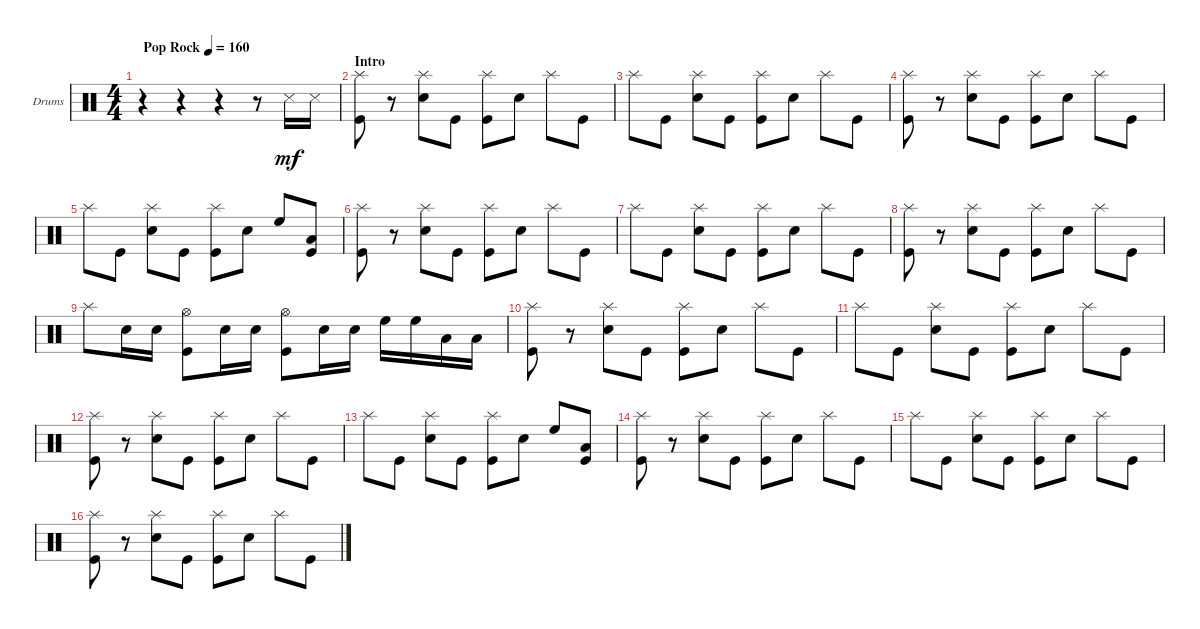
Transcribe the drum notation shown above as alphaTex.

\bracketExtendMode groupsimilarinstruments
\firstSystemTrackNameOrientation horizontal
\otherSystemsTrackNameOrientation horizontal
\track ("Drumkit" "Drums") {instrument percussion}
\staff {score}
\articulation defaults
\ts (4 4)
\beaming (8 2 2 2 2)
\tempo (160 "Pop Rock")
\clef neutral
\ks c
r.4{dy mf} r.4 r.4 r.8 "Snare (side stick) 3".16 "Snare (side stick) 3".16 |
\section ("" "Intro")
("Kick (hit)" "Splash (hit)").8 r.8 ("Snare (hit) 2" "Splash (hit)").8 "Kick (hit)".8 ("Kick (hit)" "Splash (hit)").8 "Snare (hit) 2".8 "Splash (hit)".8 "Kick (hit)".8 |
"Splash (hit)".8 "Kick (hit)".8 ("Snare (hit) 2" "Splash (hit)").8 "Kick (hit)".8 ("Kick (hit)" "Splash (hit)").8 "Snare (hit) 2".8 "Splash (hit)".8 "Kick (hit)".8 |
("Kick (hit)" "Splash (hit)").8 r.8 ("Snare (hit) 2" "Splash (hit)").8 "Kick (hit)".8 ("Kick (hit)" "Splash (hit)").8 "Snare (hit) 2".8 "Splash (hit)".8 "Kick (hit)".8 |
"Splash (hit)".8 "Kick (hit)".8 ("Snare (hit) 2" "Splash (hit)").8 "Kick (hit)".8 ("Kick (hit)" "Splash (hit)").8 "Snare (hit) 2".8 "High Floor Tom (hit)".8 ("Kick (hit)" "Low Tom (hit)").8 |
("Kick (hit)" "Splash (hit)").8 r.8 ("Snare (hit) 2" "Splash (hit)").8 "Kick (hit)".8 ("Kick (hit)" "Splash (hit)").8 "Snare (hit) 2".8 "Splash (hit)".8 "Kick (hit)".8 |
"Splash (hit)".8 "Kick (hit)".8 ("Snare (hit) 2" "Splash (hit)").8 "Kick (hit)".8 ("Kick (hit)" "Splash (hit)").8 "Snare (hit) 2".8 "Splash (hit)".8 "Kick (hit)".8 |
("Kick (hit)" "Splash (hit)").8 r.8 ("Snare (hit) 2" "Splash (hit)").8 "Kick (hit)".8 ("Kick (hit)" "Splash (hit)").8 "Snare (hit) 2".8 "Splash (hit)".8 "Kick (hit)".8 |
"Splash (hit)".8 "Snare (hit) 2".16 "Snare (hit) 2".16 ("Kick (hit)" "Hi-Hat (open)").8 "Snare (hit) 2".16 "Snare (hit) 2".16 ("Hi-Hat (open)" "Kick (hit)").8 "Snare (hit) 2".16 "Snare (hit) 2".16 "High Floor Tom (hit)".16 "High Floor Tom (hit)".16 "Low Tom (hit)".16 "Low Tom (hit)".16 |
("Kick (hit)" "Splash (hit)").8 r.8 ("Snare (hit) 2" "Splash (hit)").8 "Kick (hit)".8 ("Kick (hit)" "Splash (hit)").8 "Snare (hit) 2".8 "Splash (hit)".8 "Kick (hit)".8 |
"Splash (hit)".8 "Kick (hit)".8 ("Snare (hit) 2" "Splash (hit)").8 "Kick (hit)".8 ("Kick (hit)" "Splash (hit)").8 "Snare (hit) 2".8 "Splash (hit)".8 "Kick (hit)".8 |
("Kick (hit)" "Splash (hit)").8 r.8 ("Snare (hit) 2" "Splash (hit)").8 "Kick (hit)".8 ("Kick (hit)" "Splash (hit)").8 "Snare (hit) 2".8 "Splash (hit)".8 "Kick (hit)".8 |
"Splash (hit)".8 "Kick (hit)".8 ("Snare (hit) 2" "Splash (hit)").8 "Kick (hit)".8 ("Kick (hit)" "Splash (hit)").8 "Snare (hit) 2".8 "High Floor Tom (hit)".8 ("Kick (hit)" "Low Tom (hit)").8 |
("Kick (hit)" "Splash (hit)").8 r.8 ("Snare (hit) 2" "Splash (hit)").8 "Kick (hit)".8 ("Kick (hit)" "Splash (hit)").8 "Snare (hit) 2".8 "Splash (hit)".8 "Kick (hit)".8 |
"Splash (hit)".8 "Kick (hit)".8 ("Snare (hit) 2" "Splash (hit)").8 "Kick (hit)".8 ("Kick (hit)" "Splash (hit)").8 "Snare (hit) 2".8 "Splash (hit)".8 "Kick (hit)".8 |
("Kick (hit)" "Splash (hit)").8 r.8 ("Snare (hit) 2" "Splash (hit)").8 "Kick (hit)".8 ("Kick (hit)" "Splash (hit)").8 "Snare (hit) 2".8 "Splash (hit)".8 "Kick (hit)".8
